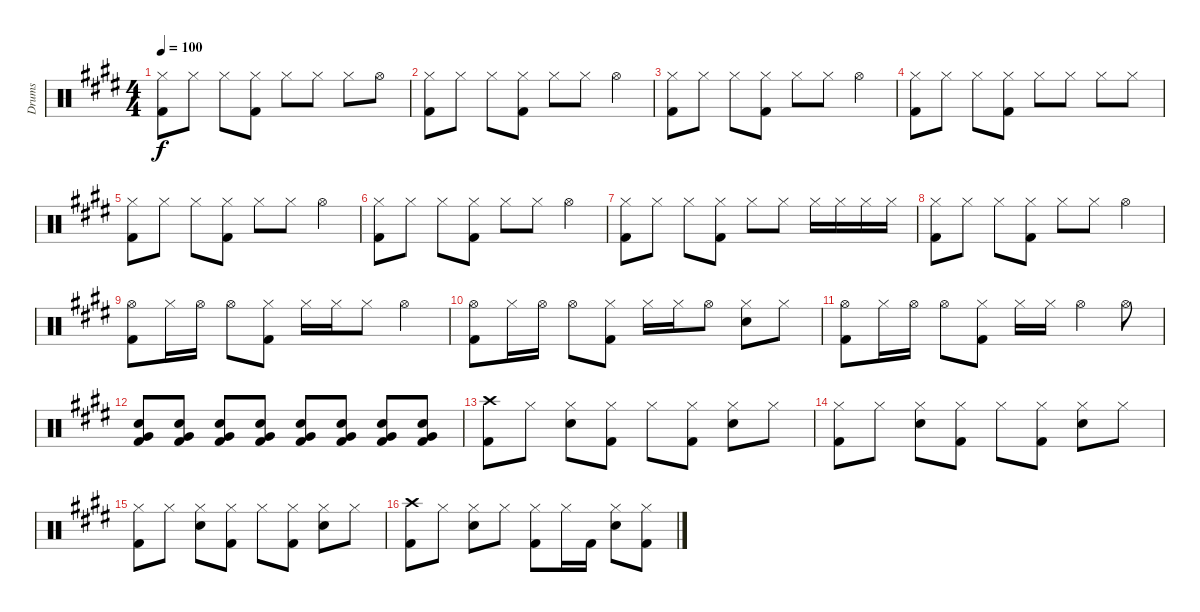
\track ("Drums" "Drums") {instrument percussion}
\staff {score}
\articulation defaults
\ts (4 4)
\tempo 100
\clef neutral
\ks e
("Hi-Hat (closed)" "Kick (hit) 2").8{dy f} "Hi-Hat (closed)".8 "Hi-Hat (closed)".8 ("Hi-Hat (closed)" "Kick (hit) 2").8 "Hi-Hat (closed)".8 "Hi-Hat (closed)".8 "Hi-Hat (closed)".8 "Hi-Hat (open)".8 |
("Hi-Hat (closed)" "Kick (hit) 2").8 "Hi-Hat (closed)".8 "Hi-Hat (closed)".8 ("Hi-Hat (closed)" "Kick (hit) 2").8 "Hi-Hat (closed)".8 "Hi-Hat (closed)".8 "Hi-Hat (open)".4 |
("Hi-Hat (closed)" "Kick (hit) 2").8 "Hi-Hat (closed)".8 "Hi-Hat (closed)".8 ("Hi-Hat (closed)" "Kick (hit) 2").8 "Hi-Hat (closed)".8 "Hi-Hat (closed)".8 "Hi-Hat (open)".4 |
("Hi-Hat (closed)" "Kick (hit) 2").8 "Hi-Hat (closed)".8 "Hi-Hat (closed)".8 ("Hi-Hat (closed)" "Kick (hit) 2").8 "Hi-Hat (closed)".8 "Hi-Hat (closed)".8 "Hi-Hat (closed)".8 "Hi-Hat (closed)".8 |
("Hi-Hat (closed)" "Kick (hit) 2").8 "Hi-Hat (closed)".8 "Hi-Hat (closed)".8 ("Hi-Hat (closed)" "Kick (hit) 2").8 "Hi-Hat (closed)".8 "Hi-Hat (closed)".8 "Hi-Hat (open)".4 |
("Hi-Hat (closed)" "Kick (hit) 2").8 "Hi-Hat (closed)".8 "Hi-Hat (closed)".8 ("Hi-Hat (closed)" "Kick (hit) 2").8 "Hi-Hat (closed)".8 "Hi-Hat (closed)".8 "Hi-Hat (open)".4 |
("Hi-Hat (closed)" "Kick (hit) 2").8 "Hi-Hat (closed)".8 "Hi-Hat (closed)".8 ("Hi-Hat (closed)" "Kick (hit) 2").8 "Hi-Hat (closed)".8 "Hi-Hat (closed)".8 "Hi-Hat (closed)".16 "Hi-Hat (closed)".16 "Hi-Hat (closed)".16 "Hi-Hat (closed)".16 |
("Hi-Hat (closed)" "Kick (hit) 2").8 "Hi-Hat (closed)".8 "Hi-Hat (closed)".8 ("Hi-Hat (closed)" "Kick (hit) 2").8 "Hi-Hat (closed)".8 "Hi-Hat (closed)".8 "Hi-Hat (open)".4 |
("Hi-Hat (open)" "Kick (hit) 2").8 "Hi-Hat (closed)".16 "Hi-Hat (open)".16 "Hi-Hat (open)".8 ("Hi-Hat (closed)" "Kick (hit) 2").8 "Hi-Hat (closed)".16 "Hi-Hat (closed)".16 "Hi-Hat (closed)".8 "Hi-Hat (open)".4 |
("Hi-Hat (open)" "Kick (hit) 2").8 "Hi-Hat (closed)".16 "Hi-Hat (open)".16 "Hi-Hat (open)".8 ("Hi-Hat (closed)" "Kick (hit) 2").8 "Hi-Hat (closed)".16 "Hi-Hat (closed)".16 "Hi-Hat (open)".8 ("Hi-Hat (closed)" "Electric Snare (hit)").8 "Hi-Hat (closed)".8 |
("Hi-Hat (open)" "Kick (hit) 2").8 "Hi-Hat (closed)".16 "Hi-Hat (open)".16 "Hi-Hat (open)".8 ("Hi-Hat (closed)" "Kick (hit) 2").8 "Hi-Hat (closed)".16 "Hi-Hat (closed)".16 "Hi-Hat (open)".4 "Hi-Hat (open)".8 |
("Electric Snare (hit)" "Very Low Tom (hit)" "Kick (hit) 2").8 ("Electric Snare (hit)" "Very Low Tom (hit)" "Kick (hit) 2").8 ("Electric Snare (hit)" "Very Low Tom (hit)" "Kick (hit) 2").8 ("Electric Snare (hit)" "Very Low Tom (hit)" "Kick (hit) 2").8 ("Electric Snare (hit)" "Very Low Tom (hit)" "Kick (hit) 2").8 ("Electric Snare (hit)" "Very Low Tom (hit)" "Kick (hit) 2").8 ("Electric Snare (hit)" "Very Low Tom (hit)" "Kick (hit) 2").8 ("Electric Snare (hit)" "Very Low Tom (hit)" "Kick (hit) 2").8 |
("Crash high (hit)" "Kick (hit) 2").8 "Hi-Hat (closed)".8 ("Hi-Hat (closed)" "Electric Snare (hit)").8 ("Hi-Hat (closed)" "Kick (hit) 2").8 "Hi-Hat (closed)".8 ("Hi-Hat (closed)" "Kick (hit) 2").8 ("Hi-Hat (closed)" "Electric Snare (hit)").8 "Hi-Hat (closed)".8 |
("Hi-Hat (closed)" "Kick (hit) 2").8 "Hi-Hat (closed)".8 ("Hi-Hat (closed)" "Electric Snare (hit)").8 ("Hi-Hat (closed)" "Kick (hit) 2").8 "Hi-Hat (closed)".8 ("Hi-Hat (closed)" "Kick (hit) 2").8 ("Hi-Hat (closed)" "Electric Snare (hit)").8 "Hi-Hat (closed)".8 |
("Hi-Hat (closed)" "Kick (hit) 2").8 "Hi-Hat (closed)".8 ("Hi-Hat (closed)" "Electric Snare (hit)").8 ("Hi-Hat (closed)" "Kick (hit) 2").8 "Hi-Hat (closed)".8 ("Hi-Hat (closed)" "Kick (hit) 2").8 ("Hi-Hat (closed)" "Electric Snare (hit)").8 "Hi-Hat (closed)".8 |
("Crash high (hit)" "Kick (hit) 2").8 "Hi-Hat (closed)".8 ("Hi-Hat (closed)" "Electric Snare (hit)").8 "Hi-Hat (closed)".8 ("Hi-Hat (closed)" "Kick (hit) 2").8 "Hi-Hat (closed)".16 "Kick (hit) 2".16 ("Hi-Hat (closed)" "Electric Snare (hit)").8 ("Hi-Hat (closed)" "Kick (hit) 2").8
